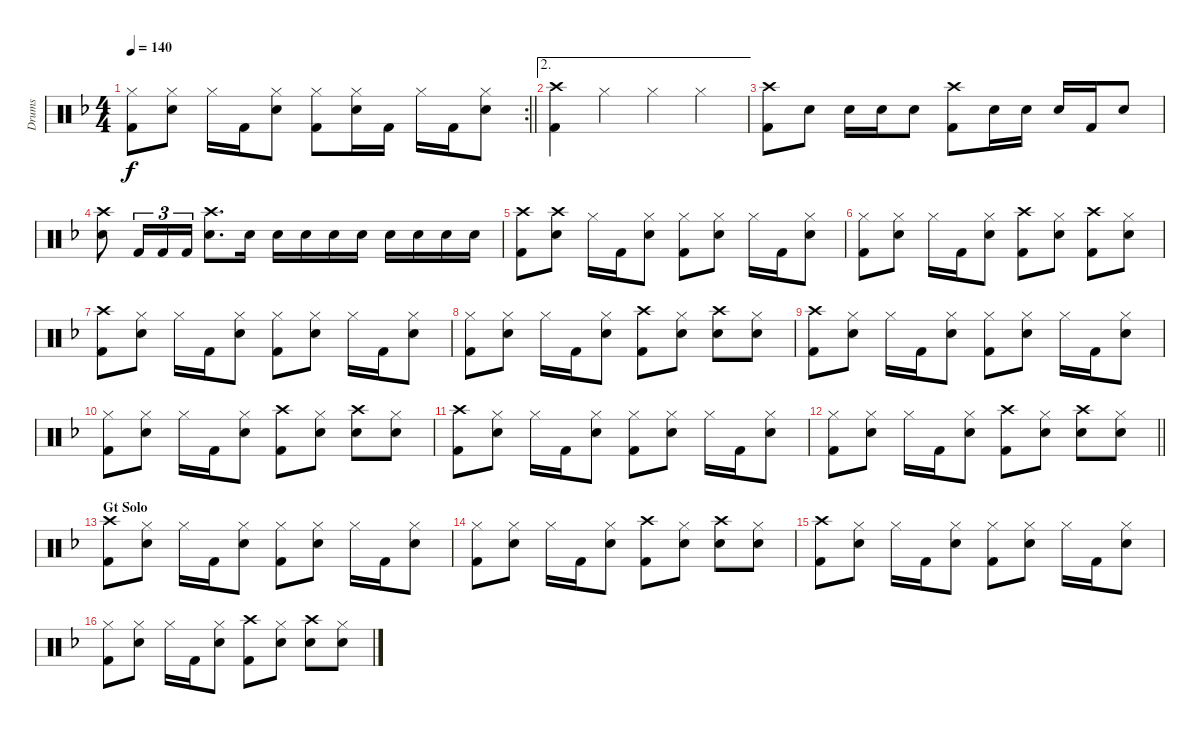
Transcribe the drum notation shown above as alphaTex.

\track ("Drums" "Drums") {instrument percussion}
\staff {score}
\articulation defaults
\rc 2
\ts (4 4)
\tempo 140
\clef neutral
\barLineRight lightlight
\ks dminor
("Hi-Hat (closed)" "Kick (hit) 2").8{dy f} ("Hi-Hat (closed)" "Snare (hit) 2").8 "Hi-Hat (closed)".16 "Kick (hit) 2".16 ("Hi-Hat (closed)" "Snare (hit) 2").8 ("Hi-Hat (closed)" "Kick (hit) 2").8 ("Hi-Hat (closed)" "Snare (hit) 2").16 "Kick (hit) 2".16 "Hi-Hat (closed)".16 "Kick (hit) 2".16 ("Hi-Hat (closed)" "Snare (hit) 2").8 |
\ae 2
("Crash high (hit)" "Kick (hit) 2").4 "Hi-Hat (closed)".4 "Hi-Hat (closed)".4 "Hi-Hat (closed)".4 |
("Crash high (hit)" "Kick (hit) 2").8 "Snare (hit) 2".8 "Snare (hit) 2".16 "Snare (hit) 2".16 "Snare (hit) 2".8 ("Crash high (hit)" "Kick (hit) 2").8 "Snare (hit) 2".16 "Snare (hit) 2".16 "Snare (hit) 2".16 "Kick (hit) 2".16 "Snare (hit) 2".8 |
("Crash high (hit)" "Snare (hit) 2").8 "Kick (hit) 2".16{tu (3 2)} "Kick (hit) 2".16{tu (3 2)} "Kick (hit) 2".16{tu (3 2)} ("Crash high (hit)" "Snare (hit) 2").8{d} "Snare (hit) 2".16 "Snare (hit) 2".16 "Snare (hit) 2".16 "Snare (hit) 2".16 "Snare (hit) 2".16 "Snare (hit) 2".16 "Snare (hit) 2".16 "Snare (hit) 2".16 "Snare (hit) 2".16 |
("Crash high (hit)" "Kick (hit) 2").8 ("Crash high (hit)" "Snare (hit) 2").8 "Hi-Hat (closed)".16 "Kick (hit) 2".16 ("Hi-Hat (closed)" "Snare (hit) 2").8 ("Hi-Hat (closed)" "Kick (hit) 2").8 ("Hi-Hat (closed)" "Snare (hit) 2").8 "Hi-Hat (closed)".16 "Kick (hit) 2".16 ("Hi-Hat (closed)" "Snare (hit) 2").8 |
("Hi-Hat (closed)" "Kick (hit) 2").8 ("Hi-Hat (closed)" "Snare (hit) 2").8 "Hi-Hat (closed)".16 "Kick (hit) 2".16 ("Hi-Hat (closed)" "Snare (hit) 2").8 ("Crash high (hit)" "Kick (hit) 2").8 ("Hi-Hat (closed)" "Snare (hit) 2").8 ("Crash high (hit)" "Kick (hit) 2").8 ("Hi-Hat (closed)" "Snare (hit) 2").8 |
("Crash high (hit)" "Kick (hit) 2").8 ("Hi-Hat (closed)" "Snare (hit) 2").8 "Hi-Hat (closed)".16 "Kick (hit) 2".16 ("Hi-Hat (closed)" "Snare (hit) 2").8 ("Hi-Hat (closed)" "Kick (hit) 2").8 ("Hi-Hat (closed)" "Snare (hit) 2").8 "Hi-Hat (closed)".16 "Kick (hit) 2".16 ("Hi-Hat (closed)" "Snare (hit) 2").8 |
("Hi-Hat (closed)" "Kick (hit) 2").8 ("Hi-Hat (closed)" "Snare (hit) 2").8 "Hi-Hat (closed)".16 "Kick (hit) 2".16 ("Hi-Hat (closed)" "Snare (hit) 2").8 ("Crash high (hit)" "Kick (hit) 2").8 ("Hi-Hat (closed)" "Snare (hit) 2").8 ("Crash high (hit)" "Snare (hit) 2").8 ("Hi-Hat (closed)" "Snare (hit) 2").8 |
("Crash high (hit)" "Kick (hit) 2").8 ("Hi-Hat (closed)" "Snare (hit) 2").8 "Hi-Hat (closed)".16 "Kick (hit) 2".16 ("Hi-Hat (closed)" "Snare (hit) 2").8 ("Hi-Hat (closed)" "Kick (hit) 2").8 ("Hi-Hat (closed)" "Snare (hit) 2").8 "Hi-Hat (closed)".16 "Kick (hit) 2".16 ("Hi-Hat (closed)" "Snare (hit) 2").8 |
("Hi-Hat (closed)" "Kick (hit) 2").8 ("Hi-Hat (closed)" "Snare (hit) 2").8 "Hi-Hat (closed)".16 "Kick (hit) 2".16 ("Hi-Hat (closed)" "Snare (hit) 2").8 ("Crash high (hit)" "Kick (hit) 2").8 ("Hi-Hat (closed)" "Snare (hit) 2").8 ("Crash high (hit)" "Snare (hit) 2").8 ("Hi-Hat (closed)" "Snare (hit) 2").8 |
("Crash high (hit)" "Kick (hit) 2").8 ("Hi-Hat (closed)" "Snare (hit) 2").8 "Hi-Hat (closed)".16 "Kick (hit) 2".16 ("Hi-Hat (closed)" "Snare (hit) 2").8 ("Hi-Hat (closed)" "Kick (hit) 2").8 ("Hi-Hat (closed)" "Snare (hit) 2").8 "Hi-Hat (closed)".16 "Kick (hit) 2".16 ("Hi-Hat (closed)" "Snare (hit) 2").8 |
\barLineRight lightlight
("Hi-Hat (closed)" "Kick (hit) 2").8 ("Hi-Hat (closed)" "Snare (hit) 2").8 "Hi-Hat (closed)".16 "Kick (hit) 2".16 ("Hi-Hat (closed)" "Snare (hit) 2").8 ("Crash high (hit)" "Kick (hit) 2").8 ("Hi-Hat (closed)" "Snare (hit) 2").8 ("Crash high (hit)" "Snare (hit) 2").8 ("Hi-Hat (closed)" "Snare (hit) 2").8 |
\section ("" "Gt Solo")
("Crash high (hit)" "Kick (hit) 2").8 ("Hi-Hat (closed)" "Snare (hit) 2").8 "Hi-Hat (closed)".16 "Kick (hit) 2".16 ("Hi-Hat (closed)" "Snare (hit) 2").8 ("Hi-Hat (closed)" "Kick (hit) 2").8 ("Hi-Hat (closed)" "Snare (hit) 2").8 "Hi-Hat (closed)".16 "Kick (hit) 2".16 ("Hi-Hat (closed)" "Snare (hit) 2").8 |
("Hi-Hat (closed)" "Kick (hit) 2").8 ("Hi-Hat (closed)" "Snare (hit) 2").8 "Hi-Hat (closed)".16 "Kick (hit) 2".16 ("Hi-Hat (closed)" "Snare (hit) 2").8 ("Crash high (hit)" "Kick (hit) 2").8 ("Hi-Hat (closed)" "Snare (hit) 2").8 ("Crash high (hit)" "Snare (hit) 2").8 ("Hi-Hat (closed)" "Snare (hit) 2").8 |
("Crash high (hit)" "Kick (hit) 2").8 ("Hi-Hat (closed)" "Snare (hit) 2").8 "Hi-Hat (closed)".16 "Kick (hit) 2".16 ("Hi-Hat (closed)" "Snare (hit) 2").8 ("Hi-Hat (closed)" "Kick (hit) 2").8 ("Hi-Hat (closed)" "Snare (hit) 2").8 "Hi-Hat (closed)".16 "Kick (hit) 2".16 ("Hi-Hat (closed)" "Snare (hit) 2").8 |
("Hi-Hat (closed)" "Kick (hit) 2").8 ("Hi-Hat (closed)" "Snare (hit) 2").8 "Hi-Hat (closed)".16 "Kick (hit) 2".16 ("Hi-Hat (closed)" "Snare (hit) 2").8 ("Crash high (hit)" "Kick (hit) 2").8 ("Hi-Hat (closed)" "Snare (hit) 2").8 ("Crash high (hit)" "Snare (hit) 2").8 ("Hi-Hat (closed)" "Snare (hit) 2").8
